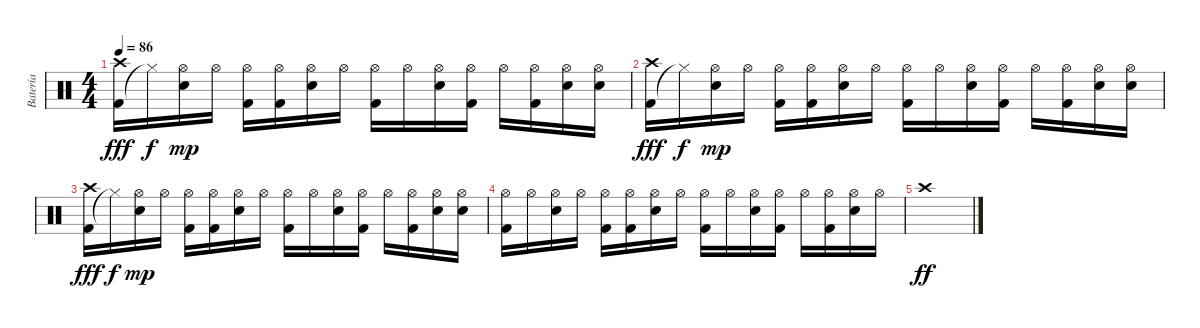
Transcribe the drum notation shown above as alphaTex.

\track ("Batería" "Batería") {instrument percussion}
\staff {score}
\articulation defaults
\ts (4 4)
\tempo 86
\clef neutral
\ks c
("Kick (hit) 2" "Crash high (hit)").16{dy fff} "Hi-Hat (closed)"{t}.16{dy f} ("Electric Snare (hit)" "Hi-Hat (open)").16{dy mp} "Hi-Hat (open)".16 ("Kick (hit) 2" "Hi-Hat (open)").16 ("Kick (hit) 2" "Hi-Hat (open)").16 ("Electric Snare (hit)" "Hi-Hat (open)").16 "Hi-Hat (open)".16 ("Kick (hit) 2" "Hi-Hat (open)").16 "Hi-Hat (open)".16 ("Electric Snare (hit)" "Hi-Hat (open)").16 ("Kick (hit) 2" "Hi-Hat (open)").16 "Hi-Hat (open)".16 ("Kick (hit) 2" "Hi-Hat (open)").16 ("Electric Snare (hit)" "Hi-Hat (open)").16 ("Electric Snare (hit)" "Hi-Hat (open)").16 |
("Kick (hit) 2" "Crash high (hit)").16{dy fff} "Hi-Hat (closed)"{t}.16{dy f} ("Electric Snare (hit)" "Hi-Hat (open)").16{dy mp} "Hi-Hat (open)".16 ("Kick (hit) 2" "Hi-Hat (open)").16 ("Kick (hit) 2" "Hi-Hat (open)").16 ("Electric Snare (hit)" "Hi-Hat (open)").16 "Hi-Hat (open)".16 ("Kick (hit) 2" "Hi-Hat (open)").16 "Hi-Hat (open)".16 ("Electric Snare (hit)" "Hi-Hat (open)").16 ("Kick (hit) 2" "Hi-Hat (open)").16 "Hi-Hat (open)".16 ("Kick (hit) 2" "Hi-Hat (open)").16 ("Electric Snare (hit)" "Hi-Hat (open)").16 ("Electric Snare (hit)" "Hi-Hat (open)").16 |
("Kick (hit) 2" "Crash high (hit)").16{dy fff} "Hi-Hat (closed)"{t}.16{dy f} ("Electric Snare (hit)" "Hi-Hat (open)").16{dy mp} "Hi-Hat (open)".16 ("Kick (hit) 2" "Hi-Hat (open)").16 ("Kick (hit) 2" "Hi-Hat (open)").16 ("Electric Snare (hit)" "Hi-Hat (open)").16 "Hi-Hat (open)".16 ("Kick (hit) 2" "Hi-Hat (open)").16 "Hi-Hat (open)".16 ("Electric Snare (hit)" "Hi-Hat (open)").16 ("Kick (hit) 2" "Hi-Hat (open)").16 "Hi-Hat (open)".16 ("Kick (hit) 2" "Hi-Hat (open)").16 ("Electric Snare (hit)" "Hi-Hat (open)").16 ("Electric Snare (hit)" "Hi-Hat (open)").16 |
("Kick (hit) 2" "Hi-Hat (open)").16 "Hi-Hat (open)".16 ("Electric Snare (hit)" "Hi-Hat (open)").16 "Hi-Hat (open)".16 ("Kick (hit) 2" "Hi-Hat (open)").16 ("Kick (hit) 2" "Hi-Hat (open)").16 ("Electric Snare (hit)" "Hi-Hat (open)").16 "Hi-Hat (open)".16 ("Kick (hit) 2" "Hi-Hat (open)").16 "Hi-Hat (open)".16 ("Electric Snare (hit)" "Hi-Hat (open)").16 ("Kick (hit) 2" "Hi-Hat (open)").16 "Hi-Hat (open)".16 ("Kick (hit) 2" "Hi-Hat (open)").16 ("Electric Snare (hit)" "Hi-Hat (open)").16 "Hi-Hat (open)".16 |
"Crash high (hit)".1{dy ff}
